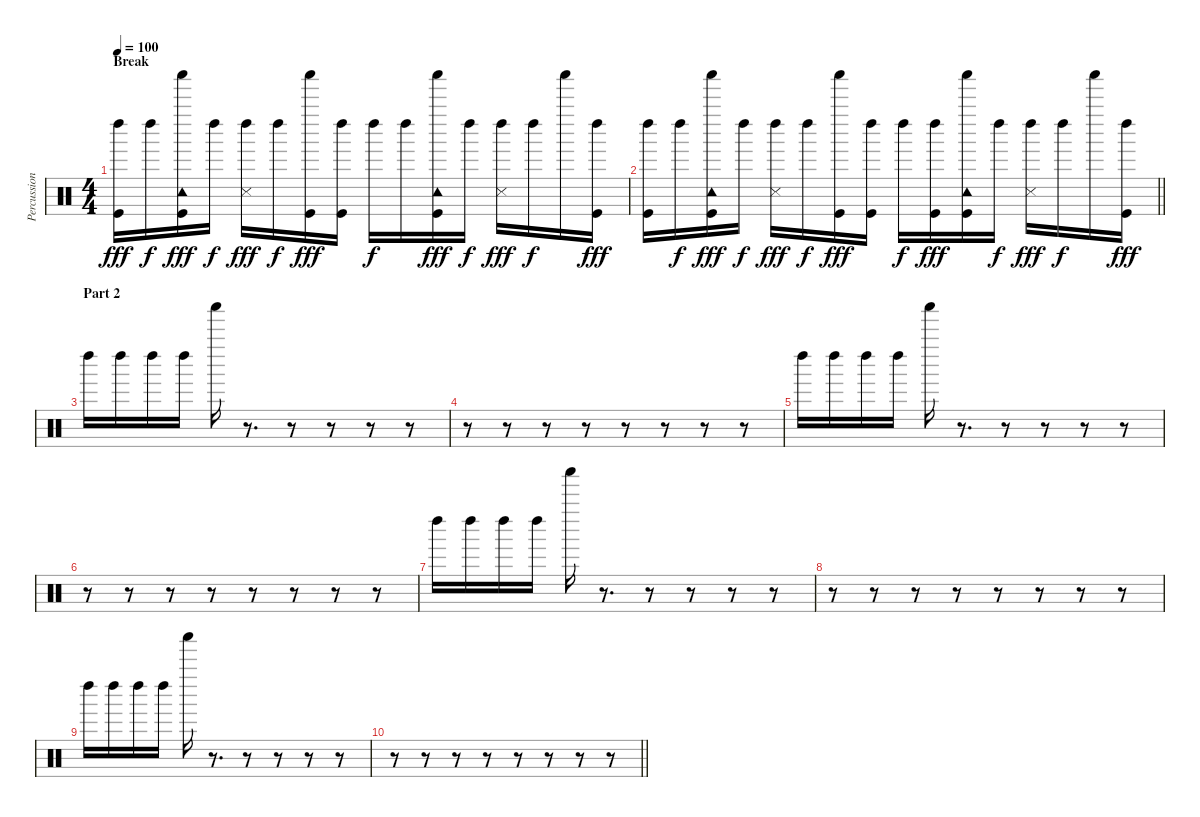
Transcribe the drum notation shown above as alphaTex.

\track ("Percussion" "Percussion") {instrument percussion}
\staff {score}
\articulation defaults
\ts (4 4)
\section ("" "Break")
\tempo 100
\clef neutral
\ks c
("Left Maraca (hit)" "Kick (hit)").16{dy fff volume 14} "Left Maraca (hit)".16{dy f} ("Shaker (hit)" "Tambourine (hit)" "Kick (hit)").16{dy fff} "Left Maraca (hit)".16{dy f} ("Left Maraca (hit)" "Snare (side stick) 3").16{dy fff} "Left Maraca (hit)".16{dy f} ("Shaker (hit)" "Kick (hit)").16{dy fff} ("Left Maraca (hit)" "Kick (hit)").16 "Left Maraca (hit)".16{dy f} "Left Maraca (hit)".16 ("Shaker (hit)" "Tambourine (hit)" "Kick (hit)").16{dy fff} "Left Maraca (hit)".16{dy f} ("Left Maraca (hit)" "Snare (side stick) 3").16{dy fff} "Left Maraca (hit)".16{dy f} "Shaker (hit)".16 ("Left Maraca (hit)" "Kick (hit)").16{dy fff} |
\barLineRight lightlight
("Left Maraca (hit)" "Kick (hit)").16 "Left Maraca (hit)".16{dy f} ("Shaker (hit)" "Tambourine (hit)" "Kick (hit)").16{dy fff} "Left Maraca (hit)".16{dy f} ("Left Maraca (hit)" "Snare (side stick) 3").16{dy fff} "Left Maraca (hit)".16{dy f} ("Shaker (hit)" "Kick (hit)").16{dy fff} ("Left Maraca (hit)" "Kick (hit)").16 "Left Maraca (hit)".16{dy f} ("Left Maraca (hit)" "Kick (hit)").16{dy fff} ("Shaker (hit)" "Tambourine (hit)" "Kick (hit)").16 "Left Maraca (hit)".16{dy f} ("Left Maraca (hit)" "Snare (side stick) 3").16{dy fff} "Left Maraca (hit)".16{dy f} "Shaker (hit)".16 ("Left Maraca (hit)" "Kick (hit)").16{dy fff} |
\section ("" "Part 2")
"Left Maraca (hit)".16{volume 10} "Left Maraca (hit)".16 "Left Maraca (hit)".16 "Left Maraca (hit)".16 "Shaker (hit)".16 r.8{d} r.8 r.8 r.8 r.8 |
r.8 r.8 r.8 r.8 r.8 r.8 r.8 r.8 |
"Left Maraca (hit)".16 "Left Maraca (hit)".16 "Left Maraca (hit)".16 "Left Maraca (hit)".16 "Shaker (hit)".16 r.8{d} r.8 r.8 r.8 r.8 |
r.8 r.8 r.8 r.8 r.8 r.8 r.8 r.8 |
"Left Maraca (hit)".16 "Left Maraca (hit)".16 "Left Maraca (hit)".16 "Left Maraca (hit)".16 "Shaker (hit)".16 r.8{d} r.8 r.8 r.8 r.8 |
r.8 r.8 r.8 r.8 r.8 r.8 r.8 r.8 |
"Left Maraca (hit)".16 "Left Maraca (hit)".16 "Left Maraca (hit)".16 "Left Maraca (hit)".16 "Shaker (hit)".16 r.8{d} r.8 r.8 r.8 r.8 |
\barLineRight lightlight
r.8 r.8 r.8 r.8 r.8 r.8 r.8 r.8
